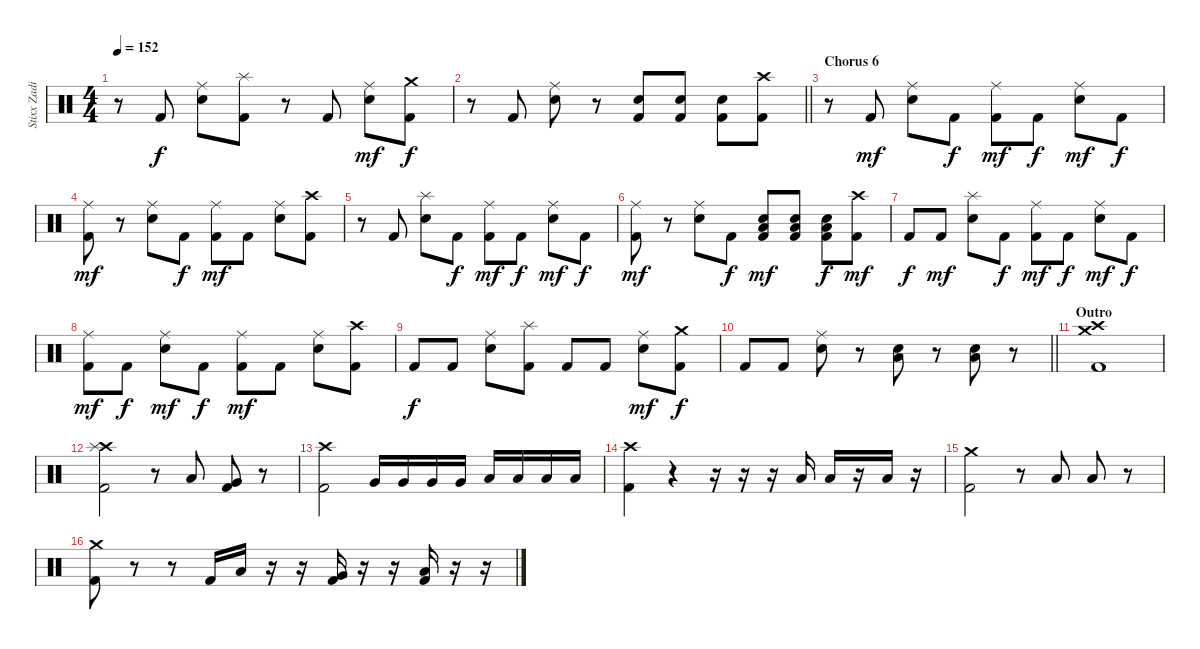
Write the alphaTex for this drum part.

\track ("Stixx Zadinia (Drums)" "Stixx Zadi") {instrument percussion}
\staff {score}
\articulation defaults
\ts (4 4)
\tempo 152
\clef neutral
\ks c
r.8{dy mf} "Kick (hit) 2".8{dy f} ("Ride (middle)" "Snare (hit) 2").8 ("Splash (hit)" "Kick (hit) 2").8 r.8 "Kick (hit) 2".8 ("Ride (middle)" "Snare (hit) 2").8{dy mf} ("Crash medium (hit)" "Kick (hit) 2").8{dy f} |
\barLineRight lightlight
r.8 "Kick (hit) 2".8 ("Ride (middle)" "Snare (hit) 2").8 r.8 ("Snare (hit) 2" "Kick (hit) 2").8 ("Snare (hit) 2" "Kick (hit) 2").8 ("Snare (hit) 2" "Kick (hit) 2").8 ("Crash high (hit)" "Kick (hit) 2").8 |
\section ("" "Chorus 6")
r.8 "Kick (hit) 2".8{dy mf} ("Ride (middle)" "Snare (hit) 2").8 "Kick (hit) 2".8{dy f} ("Ride (middle)" "Kick (hit) 2").8{dy mf} "Kick (hit) 2".8{dy f} ("Ride (middle)" "Snare (hit) 2").8{dy mf} "Kick (hit) 2".8{dy f} |
("Ride (middle)" "Kick (hit) 2").8{dy mf} r.8 ("Ride (middle)" "Snare (hit) 2").8 "Kick (hit) 2".8{dy f} ("Ride (middle)" "Kick (hit) 2").8{dy mf} "Kick (hit) 2".8 ("Ride (middle)" "Snare (hit) 2").8 ("Crash high (hit)" "Kick (hit) 2").8 |
r.8 "Kick (hit) 2".8 ("Splash (hit)" "Snare (hit) 2").8 "Kick (hit) 2".8{dy f} ("Ride (middle)" "Kick (hit) 2").8{dy mf} "Kick (hit) 2".8{dy f} ("Ride (middle)" "Snare (hit) 2").8{dy mf} "Kick (hit) 2".8{dy f} |
("Ride (middle)" "Kick (hit) 2").8{dy mf} r.8 ("Ride (middle)" "Snare (hit) 2").8 "Kick (hit) 2".8{dy f} ("Low Floor Tom (hit)" "Snare (hit) 2" "Kick (hit) 2").8{dy mf} ("Low Floor Tom (hit)" "Snare (hit) 2" "Kick (hit) 2").8 ("Low Floor Tom (hit)" "Snare (hit) 2" "Kick (hit) 2").8{dy f} ("Crash high (hit)" "Kick (hit) 2").8{dy mf} |
"Kick (hit) 2".8{dy f} "Kick (hit) 2".8{dy mf} ("Splash (hit)" "Snare (hit) 2").8 "Kick (hit) 2".8{dy f} ("Ride (middle)" "Kick (hit) 2").8{dy mf} "Kick (hit) 2".8{dy f} ("Ride (middle)" "Snare (hit) 2").8{dy mf} "Kick (hit) 2".8{dy f} |
("Ride (middle)" "Kick (hit) 2").8{dy mf} "Kick (hit) 2".8{dy f} ("Ride (middle)" "Snare (hit) 2").8{dy mf} "Kick (hit) 2".8{dy f} ("Ride (middle)" "Kick (hit) 2").8{dy mf} "Kick (hit) 2".8 ("Ride (middle)" "Snare (hit) 2").8 ("Crash high (hit)" "Kick (hit) 2").8 |
"Kick (hit) 2".8{dy f} "Kick (hit) 2".8 ("Ride (middle)" "Snare (hit) 2").8 ("Splash (hit)" "Kick (hit) 2").8 "Kick (hit) 2".8 "Kick (hit) 2".8 ("Ride (middle)" "Snare (hit) 2").8{dy mf} ("Crash medium (hit)" "Kick (hit) 2").8{dy f} |
\barLineRight lightlight "Kick (hit) 2".8 "Kick (hit) 2".8
("Ride (middle)" "Snare (hit) 2").8 r.8 ("Low Floor Tom (hit)" "Snare (hit) 2").8 r.8 ("Low Floor Tom (hit)" "Snare (hit) 2").8 r.8 |
\section ("" "Outro")
("Crash high (hit)" "Crash medium (hit)" "Kick (hit) 2").1 |
("Crash high (hit)" "Splash (hit)" "Kick (hit) 2").2 r.8 "Low Tom (hit)".8 ("Very Low Tom (hit)" "Kick (hit) 2").8 r.8 |
("Crash high (hit)" "Kick (hit) 2").2 "Very Low Tom (hit)".16 "Very Low Tom (hit)".16 "Very Low Tom (hit)".16 "Very Low Tom (hit)".16 "Low Floor Tom (hit)".16 "Low Floor Tom (hit)".16 "Low Floor Tom (hit)".16 "Low Floor Tom (hit)".16 |
("Crash high (hit)" "Kick (hit) 2").4 r.4 r.16 r.16 r.16 "Low Floor Tom (hit)".16 "Low Floor Tom (hit)".16 r.16 "Low Floor Tom (hit)".16 r.16 |
("Crash medium (hit)" "Kick (hit) 2").2 r.8 "Low Floor Tom (hit)".8 "Low Floor Tom (hit)".8 r.8 |
("Crash medium (hit)" "Kick (hit) 2").8 r.8 r.8 "Kick (hit) 2".16 "Low Tom (hit)".16 r.16 r.16 ("Very Low Tom (hit)" "Kick (hit) 2").16 r.16 r.16 ("Low Floor Tom (hit)" "Kick (hit) 2").16 r.16 r.16
